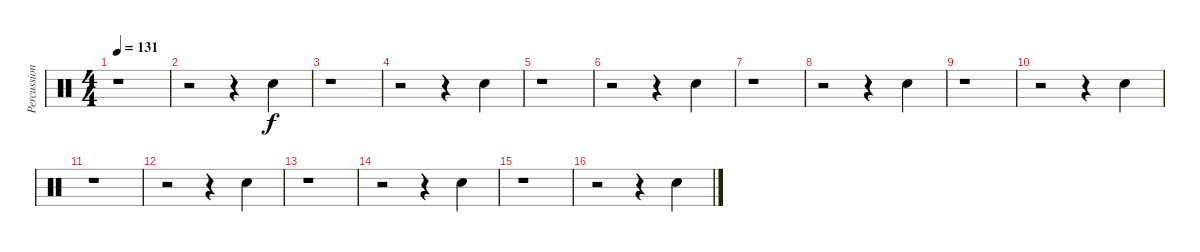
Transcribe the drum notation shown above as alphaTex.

\track ("Percussions" "Percussion") {instrument percussion}
\staff {score}
\articulation defaults
\ts (4 4)
\tempo 131
\clef neutral
\ks c
r.1{dy f} |
r.2 r.4 "Electric Snare (hit)".4 |
r.1 |
r.2 r.4 "Electric Snare (hit)".4 |
r.1 |
r.2 r.4 "Electric Snare (hit)".4 |
r.1 |
r.2 r.4 "Electric Snare (hit)".4 |
r.1 |
r.2 r.4 "Electric Snare (hit)".4 |
r.1 |
r.2 r.4 "Electric Snare (hit)".4 |
r.1 |
r.2 r.4 "Electric Snare (hit)".4 |
r.1 |
r.2 r.4 "Electric Snare (hit)".4
